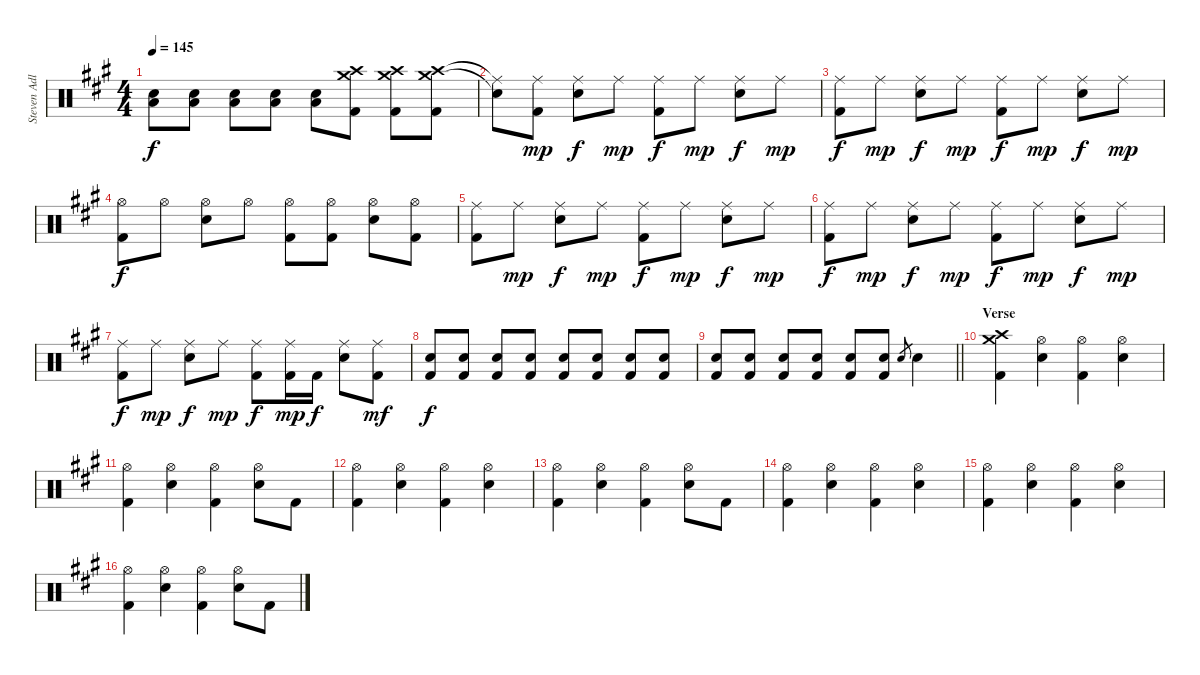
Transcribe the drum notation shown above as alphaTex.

\track ("Steven Adler - Drums" "Steven Adl") {instrument percussion}
\staff {score}
\articulation defaults
\ts (4 4)
\tempo 145
\clef neutral
\ks a
("Low Tom (hit)" "Snare (hit) 2").8{dy f} ("Low Tom (hit)" "Snare (hit) 2").8 ("Low Tom (hit)" "Snare (hit) 2").8 ("Low Tom (hit)" "Snare (hit) 2").8 ("Low Tom (hit)" "Snare (hit) 2").8 ("Crash medium (hit)" "Crash high (hit)" "Kick (hit) 2").8 ("Crash medium (hit)" "Crash high (hit)" "Kick (hit) 2").8 ("Crash medium (hit)" "Crash high (hit)" "Kick (hit) 2").8 |
("Snare (hit)"{t} "Ride (middle)"{t}).8 ("Ride (middle)" "Kick (hit) 2").8{dy mp} ("Ride (middle)" "Snare (hit) 2").8{dy f} "Ride (middle)".8{dy mp} ("Ride (middle)" "Kick (hit) 2").8{dy f} "Ride (middle)".8{dy mp} ("Ride (middle)" "Snare (hit) 2").8{dy f} "Ride (middle)".8{dy mp} |
("Ride (middle)" "Kick (hit) 2").8{dy f} "Ride (middle)".8{dy mp} ("Ride (middle)" "Snare (hit) 2").8{dy f} "Ride (middle)".8{dy mp} ("Ride (middle)" "Kick (hit) 2").8{dy f} "Ride (middle)".8{dy mp} ("Ride (middle)" "Snare (hit) 2").8{dy f} "Ride (middle)".8{dy mp} |
("Hi-Hat (open)" "Kick (hit) 2").8{dy f} "Hi-Hat (open)".8 ("Hi-Hat (open)" "Electric Snare (hit)").8 "Hi-Hat (open)".8 ("Hi-Hat (open)" "Kick (hit) 2").8 ("Hi-Hat (open)" "Kick (hit) 2").8 ("Hi-Hat (open)" "Electric Snare (hit)").8 ("Hi-Hat (open)" "Kick (hit) 2").8 |
("Ride (middle)" "Kick (hit) 2").8 "Ride (middle)".8{dy mp} ("Ride (middle)" "Snare (hit) 2").8{dy f} "Ride (middle)".8{dy mp} ("Ride (middle)" "Kick (hit) 2").8{dy f} "Ride (middle)".8{dy mp} ("Ride (middle)" "Snare (hit) 2").8{dy f} "Ride (middle)".8{dy mp} |
("Ride (middle)" "Kick (hit) 2").8{dy f} "Ride (middle)".8{dy mp} ("Ride (middle)" "Snare (hit) 2").8{dy f} "Ride (middle)".8{dy mp} ("Ride (middle)" "Kick (hit) 2").8{dy f} "Ride (middle)".8{dy mp} ("Ride (middle)" "Snare (hit) 2").8{dy f} "Ride (middle)".8{dy mp} |
("Ride (middle)" "Kick (hit) 2").8{dy f} "Ride (middle)".8{dy mp} ("Ride (middle)" "Snare (hit) 2").8{dy f} "Ride (middle)".8{dy mp} ("Ride (middle)" "Kick (hit) 2").8{dy f} ("Ride (middle)" "Kick (hit) 2").16{dy mp} "Kick (hit) 2".16{dy f} ("Ride (middle)" "Snare (hit) 2").8 ("Ride (middle)" "Kick (hit) 2").8{dy mf} |
("Snare (hit) 2" "Kick (hit) 2").8{dy f} ("Snare (hit) 2" "Kick (hit) 2").8 ("Snare (hit) 2" "Kick (hit) 2").8 ("Snare (hit) 2" "Kick (hit) 2").8 ("Snare (hit) 2" "Kick (hit) 2").8 ("Snare (hit) 2" "Kick (hit) 2").8 ("Snare (hit) 2" "Kick (hit) 2").8 ("Snare (hit) 2" "Kick (hit) 2").8 |
\barLineRight lightlight
("Snare (hit) 2" "Kick (hit) 2").8 ("Snare (hit) 2" "Kick (hit) 2").8 ("Snare (hit) 2" "Kick (hit) 2").8 ("Snare (hit) 2" "Kick (hit) 2").8 ("Snare (hit) 2" "Kick (hit) 2").8 ("Snare (hit) 2" "Kick (hit) 2").8 "Snare (hit) 2".8{gr} "Snare (hit) 2".4 |
\section ("" "Verse")
("Crash medium (hit)" "Crash high (hit)" "Kick (hit) 2").4 ("Hi-Hat (open)" "Snare (hit) 2").4 ("Hi-Hat (open)" "Kick (hit) 2").4 ("Hi-Hat (open)" "Snare (hit) 2").4 |
("Hi-Hat (open)" "Kick (hit) 2").4 ("Hi-Hat (open)" "Snare (hit) 2").4 ("Hi-Hat (open)" "Kick (hit) 2").4 ("Hi-Hat (open)" "Snare (hit) 2").8 "Kick (hit) 2".8 |
("Hi-Hat (open)" "Kick (hit) 2").4 ("Hi-Hat (open)" "Snare (hit) 2").4 ("Hi-Hat (open)" "Kick (hit) 2").4 ("Hi-Hat (open)" "Snare (hit) 2").4 |
("Hi-Hat (open)" "Kick (hit) 2").4 ("Hi-Hat (open)" "Snare (hit) 2").4 ("Hi-Hat (open)" "Kick (hit) 2").4 ("Hi-Hat (open)" "Snare (hit) 2").8 "Kick (hit) 2".8 |
("Hi-Hat (open)" "Kick (hit) 2").4 ("Hi-Hat (open)" "Snare (hit) 2").4 ("Hi-Hat (open)" "Kick (hit) 2").4 ("Hi-Hat (open)" "Snare (hit) 2").4 |
("Hi-Hat (open)" "Kick (hit) 2").4 ("Hi-Hat (open)" "Snare (hit) 2").4 ("Hi-Hat (open)" "Kick (hit) 2").4 ("Hi-Hat (open)" "Snare (hit) 2").4 |
("Hi-Hat (open)" "Kick (hit) 2").4 ("Hi-Hat (open)" "Snare (hit) 2").4 ("Hi-Hat (open)" "Kick (hit) 2").4 ("Hi-Hat (open)" "Snare (hit) 2").8 "Kick (hit) 2".8
